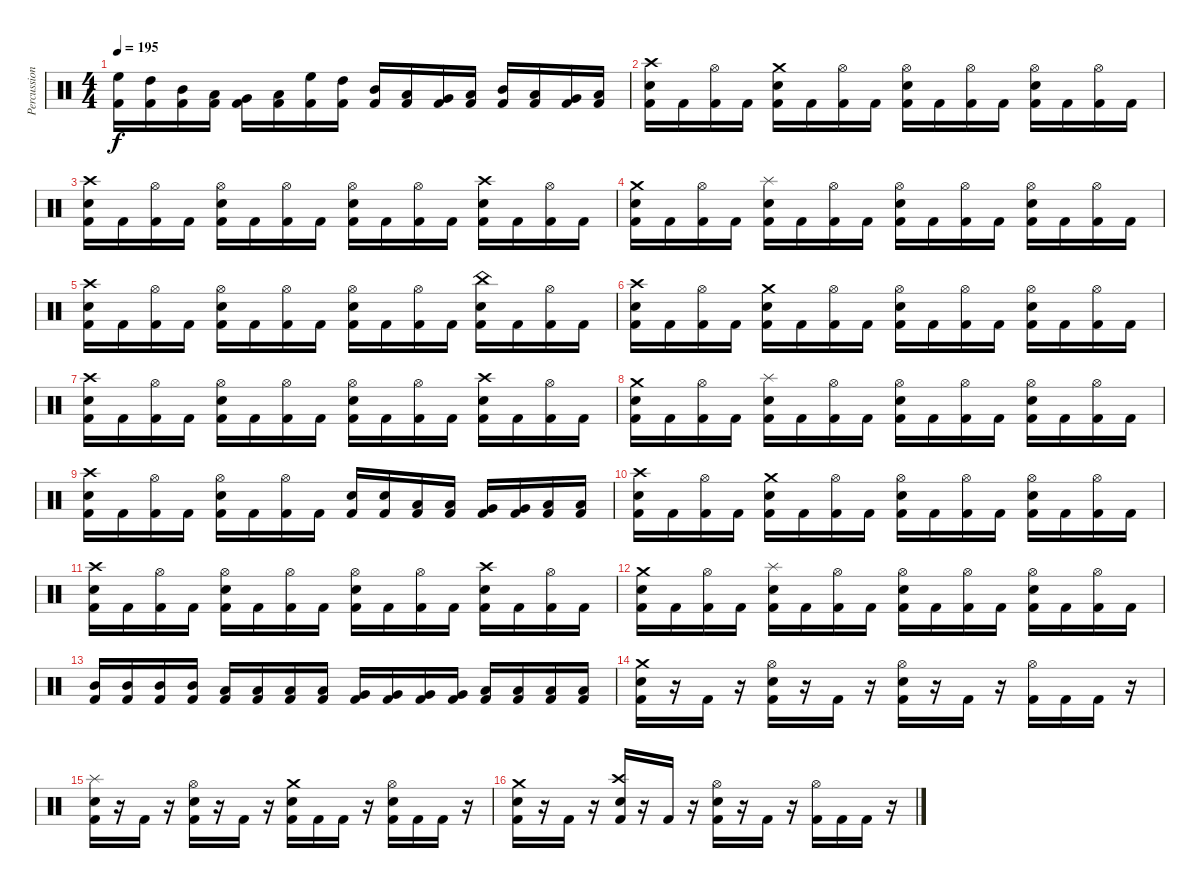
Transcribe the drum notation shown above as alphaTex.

\track ("Percussion" "Percussion") {instrument percussion}
\staff {score}
\articulation defaults
\ts (4 4)
\tempo 195
\clef neutral
\ks c
("High Floor Tom (hit)" "Kick (hit) 2").16{dy f} ("High Tom (hit)" "Kick (hit) 2").16 ("Mid Tom (hit)" "Kick (hit) 2").16 ("Low Tom (hit)" "Kick (hit) 2").16 ("Very Low Tom (hit)" "Kick (hit) 2").16 ("Low Floor Tom (hit)" "Kick (hit) 2").16 ("High Floor Tom (hit)" "Kick (hit) 2").16 ("High Tom (hit)" "Kick (hit) 2").16 ("Mid Tom (hit)" "Kick (hit) 2").16 ("Low Tom (hit)" "Kick (hit) 2").16 ("Very Low Tom (hit)" "Kick (hit) 2").16 ("Low Floor Tom (hit)" "Kick (hit) 2").16 ("Mid Tom (hit)" "Kick (hit) 2").16 ("Low Tom (hit)" "Kick (hit) 2").16 ("Very Low Tom (hit)" "Kick (hit) 2").16 ("Low Floor Tom (hit)" "Kick (hit) 2").16 |
("Crash high (hit)" "Electric Snare (hit)" "Kick (hit) 2").16 "Kick (hit) 2".16 ("Hi-Hat (open)" "Kick (hit) 2").16 "Kick (hit) 2".16 ("Crash medium (hit)" "Electric Snare (hit)" "Kick (hit) 2").16 "Kick (hit) 2".16 ("Hi-Hat (open)" "Kick (hit) 2").16 "Kick (hit) 2".16 ("Hi-Hat (open)" "Electric Snare (hit)" "Kick (hit) 2").16 "Kick (hit) 2".16 ("Hi-Hat (open)" "Kick (hit) 2").16 "Kick (hit) 2".16 ("Hi-Hat (open)" "Electric Snare (hit)" "Kick (hit) 2").16 "Kick (hit) 2".16 ("Hi-Hat (open)" "Kick (hit) 2").16 "Kick (hit) 2".16 |
("Crash high (hit)" "Electric Snare (hit)" "Kick (hit) 2").16 "Kick (hit) 2".16 ("Hi-Hat (open)" "Kick (hit) 2").16 "Kick (hit) 2".16 ("Hi-Hat (open)" "Electric Snare (hit)" "Kick (hit) 2").16 "Kick (hit) 2".16 ("Hi-Hat (open)" "Kick (hit) 2").16 "Kick (hit) 2".16 ("Hi-Hat (open)" "Electric Snare (hit)" "Kick (hit) 2").16 "Kick (hit) 2".16 ("Hi-Hat (open)" "Kick (hit) 2").16 "Kick (hit) 2".16 ("Crash high (hit)" "Electric Snare (hit)" "Kick (hit) 2").16 "Kick (hit) 2".16 ("Hi-Hat (open)" "Kick (hit) 2").16 "Kick (hit) 2".16 |
("Crash medium (hit)" "Electric Snare (hit)" "Kick (hit) 2").16 "Kick (hit) 2".16 ("Hi-Hat (open)" "Kick (hit) 2").16 "Kick (hit) 2".16 ("Splash (hit)" "Electric Snare (hit)" "Kick (hit) 2").16 "Kick (hit) 2".16 ("Hi-Hat (open)" "Kick (hit) 2").16 "Kick (hit) 2".16 ("Hi-Hat (open)" "Electric Snare (hit)" "Kick (hit) 2").16 "Kick (hit) 2".16 ("Hi-Hat (open)" "Kick (hit) 2").16 "Kick (hit) 2".16 ("Hi-Hat (open)" "Electric Snare (hit)" "Kick (hit) 2").16 "Kick (hit) 2".16 ("Hi-Hat (open)" "Kick (hit) 2").16 "Kick (hit) 2".16 |
("Crash high (hit)" "Electric Snare (hit)" "Kick (hit) 2").16 "Kick (hit) 2".16 ("Hi-Hat (open)" "Kick (hit) 2").16 "Kick (hit) 2".16 ("Hi-Hat (open)" "Electric Snare (hit)" "Kick (hit) 2").16 "Kick (hit) 2".16 ("Hi-Hat (open)" "Kick (hit) 2").16 "Kick (hit) 2".16 ("Hi-Hat (open)" "Electric Snare (hit)" "Kick (hit) 2").16 "Kick (hit) 2".16 ("Hi-Hat (open)" "Kick (hit) 2").16 "Kick (hit) 2".16 ("China (hit)" "Electric Snare (hit)" "Kick (hit) 2").16 "Kick (hit) 2".16 ("Hi-Hat (open)" "Kick (hit) 2").16 "Kick (hit) 2".16 |
("Crash high (hit)" "Electric Snare (hit)" "Kick (hit) 2").16 "Kick (hit) 2".16 ("Hi-Hat (open)" "Kick (hit) 2").16 "Kick (hit) 2".16 ("Crash medium (hit)" "Electric Snare (hit)" "Kick (hit) 2").16 "Kick (hit) 2".16 ("Hi-Hat (open)" "Kick (hit) 2").16 "Kick (hit) 2".16 ("Hi-Hat (open)" "Electric Snare (hit)" "Kick (hit) 2").16 "Kick (hit) 2".16 ("Hi-Hat (open)" "Kick (hit) 2").16 "Kick (hit) 2".16 ("Hi-Hat (open)" "Electric Snare (hit)" "Kick (hit) 2").16 "Kick (hit) 2".16 ("Hi-Hat (open)" "Kick (hit) 2").16 "Kick (hit) 2".16 |
("Crash high (hit)" "Electric Snare (hit)" "Kick (hit) 2").16 "Kick (hit) 2".16 ("Hi-Hat (open)" "Kick (hit) 2").16 "Kick (hit) 2".16 ("Hi-Hat (open)" "Electric Snare (hit)" "Kick (hit) 2").16 "Kick (hit) 2".16 ("Hi-Hat (open)" "Kick (hit) 2").16 "Kick (hit) 2".16 ("Hi-Hat (open)" "Electric Snare (hit)" "Kick (hit) 2").16 "Kick (hit) 2".16 ("Hi-Hat (open)" "Kick (hit) 2").16 "Kick (hit) 2".16 ("Crash high (hit)" "Electric Snare (hit)" "Kick (hit) 2").16 "Kick (hit) 2".16 ("Hi-Hat (open)" "Kick (hit) 2").16 "Kick (hit) 2".16 |
("Crash medium (hit)" "Electric Snare (hit)" "Kick (hit) 2").16 "Kick (hit) 2".16 ("Hi-Hat (open)" "Kick (hit) 2").16 "Kick (hit) 2".16 ("Splash (hit)" "Electric Snare (hit)" "Kick (hit) 2").16 "Kick (hit) 2".16 ("Hi-Hat (open)" "Kick (hit) 2").16 "Kick (hit) 2".16 ("Hi-Hat (open)" "Electric Snare (hit)" "Kick (hit) 2").16 "Kick (hit) 2".16 ("Hi-Hat (open)" "Kick (hit) 2").16 "Kick (hit) 2".16 ("Hi-Hat (open)" "Electric Snare (hit)" "Kick (hit) 2").16 "Kick (hit) 2".16 ("Hi-Hat (open)" "Kick (hit) 2").16 "Kick (hit) 2".16 |
("Crash high (hit)" "Electric Snare (hit)" "Kick (hit) 2").16 "Kick (hit) 2".16 ("Hi-Hat (open)" "Kick (hit) 2").16 "Kick (hit) 2".16 ("Hi-Hat (open)" "Electric Snare (hit)" "Kick (hit) 2").16 "Kick (hit) 2".16 ("Hi-Hat (open)" "Kick (hit) 2").16 "Kick (hit) 2".16 ("Electric Snare (hit)" "Kick (hit) 2").16 ("Electric Snare (hit)" "Kick (hit) 2").16 ("Low Tom (hit)" "Kick (hit) 2").16 ("Low Tom (hit)" "Kick (hit) 2").16 ("Very Low Tom (hit)" "Kick (hit) 2").16 ("Very Low Tom (hit)" "Kick (hit) 2").16 ("Low Floor Tom (hit)" "Kick (hit) 2").16 ("Low Floor Tom (hit)" "Kick (hit) 2").16 |
("Crash high (hit)" "Electric Snare (hit)" "Kick (hit) 2").16 "Kick (hit) 2".16 ("Hi-Hat (open)" "Kick (hit) 2").16 "Kick (hit) 2".16 ("Crash medium (hit)" "Electric Snare (hit)" "Kick (hit) 2").16 "Kick (hit) 2".16 ("Hi-Hat (open)" "Kick (hit) 2").16 "Kick (hit) 2".16 ("Hi-Hat (open)" "Electric Snare (hit)" "Kick (hit) 2").16 "Kick (hit) 2".16 ("Hi-Hat (open)" "Kick (hit) 2").16 "Kick (hit) 2".16 ("Hi-Hat (open)" "Electric Snare (hit)" "Kick (hit) 2").16 "Kick (hit) 2".16 ("Hi-Hat (open)" "Kick (hit) 2").16 "Kick (hit) 2".16 |
("Crash high (hit)" "Electric Snare (hit)" "Kick (hit) 2").16 "Kick (hit) 2".16 ("Hi-Hat (open)" "Kick (hit) 2").16 "Kick (hit) 2".16 ("Hi-Hat (open)" "Electric Snare (hit)" "Kick (hit) 2").16 "Kick (hit) 2".16 ("Hi-Hat (open)" "Kick (hit) 2").16 "Kick (hit) 2".16 ("Hi-Hat (open)" "Electric Snare (hit)" "Kick (hit) 2").16 "Kick (hit) 2".16 ("Hi-Hat (open)" "Kick (hit) 2").16 "Kick (hit) 2".16 ("Crash high (hit)" "Electric Snare (hit)" "Kick (hit) 2").16 "Kick (hit) 2".16 ("Hi-Hat (open)" "Kick (hit) 2").16 "Kick (hit) 2".16 |
("Crash medium (hit)" "Electric Snare (hit)" "Kick (hit) 2").16 "Kick (hit) 2".16 ("Hi-Hat (open)" "Kick (hit) 2").16 "Kick (hit) 2".16 ("Splash (hit)" "Electric Snare (hit)" "Kick (hit) 2").16 "Kick (hit) 2".16 ("Hi-Hat (open)" "Kick (hit) 2").16 "Kick (hit) 2".16 ("Hi-Hat (open)" "Electric Snare (hit)" "Kick (hit) 2").16 "Kick (hit) 2".16 ("Hi-Hat (open)" "Kick (hit) 2").16 "Kick (hit) 2".16 ("Hi-Hat (open)" "Electric Snare (hit)" "Kick (hit) 2").16 "Kick (hit) 2".16 ("Hi-Hat (open)" "Kick (hit) 2").16 "Kick (hit) 2".16 |
("Mid Tom (hit)" "Kick (hit) 2").16 ("Mid Tom (hit)" "Kick (hit) 2").16 ("Mid Tom (hit)" "Kick (hit) 2").16 ("Mid Tom (hit)" "Kick (hit) 2").16 ("Low Tom (hit)" "Kick (hit) 2").16 ("Low Tom (hit)" "Kick (hit) 2").16 ("Low Tom (hit)" "Kick (hit) 2").16 ("Low Tom (hit)" "Kick (hit) 2").16 ("Very Low Tom (hit)" "Kick (hit) 2").16 ("Very Low Tom (hit)" "Kick (hit) 2").16 ("Very Low Tom (hit)" "Kick (hit) 2").16 ("Very Low Tom (hit)" "Kick (hit) 2").16 ("Low Floor Tom (hit)" "Kick (hit) 2").16 ("Low Floor Tom (hit)" "Kick (hit) 2").16 ("Low Floor Tom (hit)" "Kick (hit) 2").16 ("Low Floor Tom (hit)" "Kick (hit) 2").16 |
("Crash medium (hit)" "Electric Snare (hit)" "Kick (hit) 2").16 r.16 "Kick (hit) 2".16 r.16 ("Hi-Hat (open)" "Electric Snare (hit)" "Kick (hit) 2").16 r.16 "Kick (hit) 2".16 r.16 ("Hi-Hat (open)" "Electric Snare (hit)" "Kick (hit) 2").16 r.16 "Kick (hit) 2".16 r.16 ("Hi-Hat (open)" "Kick (hit) 2").16 "Kick (hit) 2".16 "Kick (hit) 2".16 r.16 |
("Splash (hit)" "Electric Snare (hit)" "Kick (hit) 2").16 r.16 "Kick (hit) 2".16 r.16 ("Hi-Hat (open)" "Electric Snare (hit)" "Kick (hit) 2").16 r.16 "Kick (hit) 2".16 r.16 ("Crash medium (hit)" "Electric Snare (hit)" "Kick (hit) 2").16 "Kick (hit) 2".16 "Kick (hit) 2".16 r.16 ("Hi-Hat (open)" "Electric Snare (hit)" "Kick (hit) 2").16 "Kick (hit) 2".16 "Kick (hit) 2".16 r.16 |
("Crash medium (hit)" "Electric Snare (hit)" "Kick (hit) 2").16 r.16 "Kick (hit) 2".16 r.16 ("Crash high (hit)" "Electric Snare (hit)" "Kick (hit) 2").16 r.16 "Kick (hit) 2".16 r.16 ("Hi-Hat (open)" "Electric Snare (hit)" "Kick (hit) 2").16 r.16 "Kick (hit) 2".16 r.16 ("Hi-Hat (open)" "Kick (hit) 2").16 "Kick (hit) 2".16 "Kick (hit) 2".16 r.16
